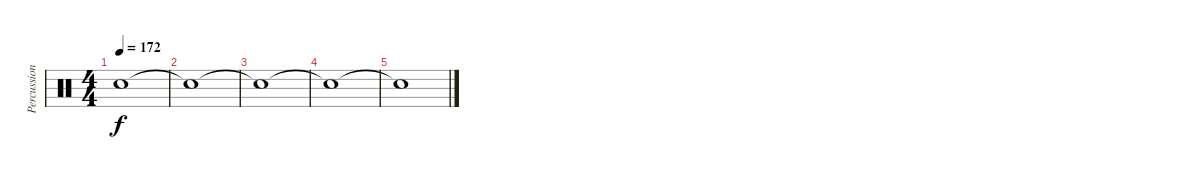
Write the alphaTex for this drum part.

\track ("Percussions" "Percussion") {instrument percussion}
\staff {score}
\articulation defaults
\ts (4 4)
\tempo 172
\clef neutral
\ks c "Snare (hit)"{t}.1{dy f}
|
"Snare (hit)"{t}.1 |
"Snare (hit)"{t}.1 |
"Snare (hit)"{t}.1 |
"Snare (hit)"{t}.1
